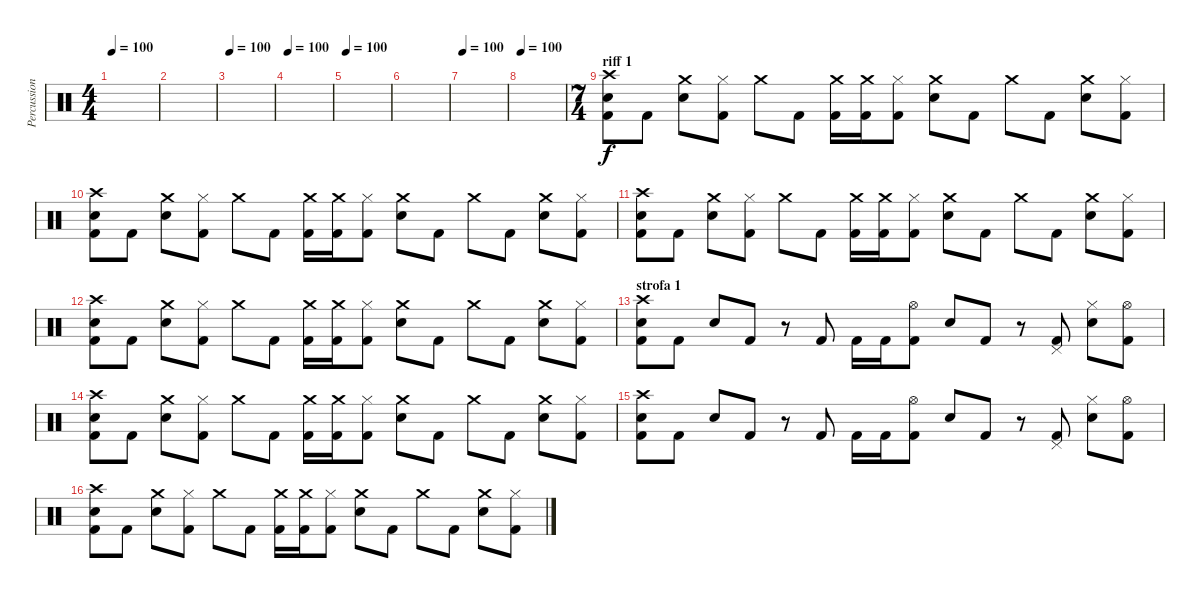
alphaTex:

\track ("Percussioni" "Percussion") {instrument percussion}
\staff {score}
\articulation defaults
\ts (4 4)
\tempo 100
\clef neutral
\ks c
|
|
\tempo 100
|
\tempo 100
|
\tempo 100
|
|
\tempo 100
|
\tempo 100
|
\ts (7 4)
\section ("" "riff 1")
("Crash high (hit)" "Snare (hit) 2" "Kick (hit) 2").8 "Kick (hit) 2".8 ("Crash medium (hit)" "Snare (hit) 2").8 ("Hi-Hat (closed)" "Kick (hit) 2").8 "Crash medium (hit)".8 "Kick (hit) 2".8 ("Crash medium (hit)" "Kick (hit) 2").16 ("Crash medium (hit)" "Kick (hit) 2").16 ("Hi-Hat (closed)" "Kick (hit) 2").8 ("Crash medium (hit)" "Snare (hit) 2").8 "Kick (hit) 2".8 "Crash medium (hit)".8 "Kick (hit) 2".8 ("Crash medium (hit)" "Snare (hit) 2").8 ("Hi-Hat (closed)" "Kick (hit) 2").8 |
("Crash high (hit)" "Snare (hit) 2" "Kick (hit) 2").8 "Kick (hit) 2".8 ("Crash medium (hit)" "Snare (hit) 2").8 ("Hi-Hat (closed)" "Kick (hit) 2").8 "Crash medium (hit)".8 "Kick (hit) 2".8 ("Crash medium (hit)" "Kick (hit) 2").16 ("Crash medium (hit)" "Kick (hit) 2").16 ("Hi-Hat (closed)" "Kick (hit) 2").8 ("Crash medium (hit)" "Snare (hit) 2").8 "Kick (hit) 2".8 "Crash medium (hit)".8 "Kick (hit) 2".8 ("Crash medium (hit)" "Snare (hit) 2").8 ("Hi-Hat (closed)" "Kick (hit) 2").8 |
("Crash high (hit)" "Snare (hit) 2" "Kick (hit) 2").8 "Kick (hit) 2".8 ("Crash medium (hit)" "Snare (hit) 2").8 ("Hi-Hat (closed)" "Kick (hit) 2").8 "Crash medium (hit)".8 "Kick (hit) 2".8 ("Crash medium (hit)" "Kick (hit) 2").16 ("Crash medium (hit)" "Kick (hit) 2").16 ("Hi-Hat (closed)" "Kick (hit) 2").8 ("Crash medium (hit)" "Snare (hit) 2").8 "Kick (hit) 2".8 "Crash medium (hit)".8 "Kick (hit) 2".8 ("Crash medium (hit)" "Snare (hit) 2").8 ("Hi-Hat (closed)" "Kick (hit) 2").8 |
("Crash high (hit)" "Snare (hit) 2" "Kick (hit) 2").8 "Kick (hit) 2".8 ("Crash medium (hit)" "Snare (hit) 2").8 ("Hi-Hat (closed)" "Kick (hit) 2").8 "Crash medium (hit)".8 "Kick (hit) 2".8 ("Crash medium (hit)" "Kick (hit) 2").16 ("Crash medium (hit)" "Kick (hit) 2").16 ("Hi-Hat (closed)" "Kick (hit) 2").8 ("Crash medium (hit)" "Snare (hit) 2").8 "Kick (hit) 2".8 "Crash medium (hit)".8 "Kick (hit) 2".8 ("Crash medium (hit)" "Snare (hit) 2").8 ("Hi-Hat (closed)" "Kick (hit) 2").8 |
\section ("" "strofa 1")
("Crash high (hit)" "Snare (hit) 2" "Kick (hit) 2").8 "Kick (hit) 2".8 "Snare (hit) 2".8 "Kick (hit) 2".8 r.8 "Kick (hit) 2".8 "Kick (hit) 2".16 "Kick (hit) 2".16 ("Hi-Hat (open)" "Kick (hit) 2").8 "Snare (hit) 2".8 "Kick (hit) 2".8 r.8 ("Pedal Hi-Hat (hit)" "Kick (hit) 2").8 ("Hi-Hat (closed)" "Snare (hit) 2").8 ("Hi-Hat (open)" "Kick (hit) 2").8 |
("Crash high (hit)" "Snare (hit) 2" "Kick (hit) 2").8 "Kick (hit) 2".8 ("Crash medium (hit)" "Snare (hit) 2").8 ("Hi-Hat (closed)" "Kick (hit) 2").8 "Crash medium (hit)".8 "Kick (hit) 2".8 ("Crash medium (hit)" "Kick (hit) 2").16 ("Crash medium (hit)" "Kick (hit) 2").16 ("Hi-Hat (closed)" "Kick (hit) 2").8 ("Crash medium (hit)" "Snare (hit) 2").8 "Kick (hit) 2".8 "Crash medium (hit)".8 "Kick (hit) 2".8 ("Crash medium (hit)" "Snare (hit) 2").8 ("Hi-Hat (closed)" "Kick (hit) 2").8 |
("Crash high (hit)" "Snare (hit) 2" "Kick (hit) 2").8 "Kick (hit) 2".8 "Snare (hit) 2".8 "Kick (hit) 2".8 r.8 "Kick (hit) 2".8 "Kick (hit) 2".16 "Kick (hit) 2".16 ("Hi-Hat (open)" "Kick (hit) 2").8 "Snare (hit) 2".8 "Kick (hit) 2".8 r.8 ("Pedal Hi-Hat (hit)" "Kick (hit) 2").8 ("Hi-Hat (closed)" "Snare (hit) 2").8 ("Hi-Hat (open)" "Kick (hit) 2").8 |
("Crash high (hit)" "Snare (hit) 2" "Kick (hit) 2").8 "Kick (hit) 2".8 ("Crash medium (hit)" "Snare (hit) 2").8 ("Hi-Hat (closed)" "Kick (hit) 2").8 "Crash medium (hit)".8 "Kick (hit) 2".8 ("Crash medium (hit)" "Kick (hit) 2").16 ("Crash medium (hit)" "Kick (hit) 2").16 ("Hi-Hat (closed)" "Kick (hit) 2").8 ("Crash medium (hit)" "Snare (hit) 2").8 "Kick (hit) 2".8 "Crash medium (hit)".8 "Kick (hit) 2".8 ("Crash medium (hit)" "Snare (hit) 2").8 ("Hi-Hat (closed)" "Kick (hit) 2").8
